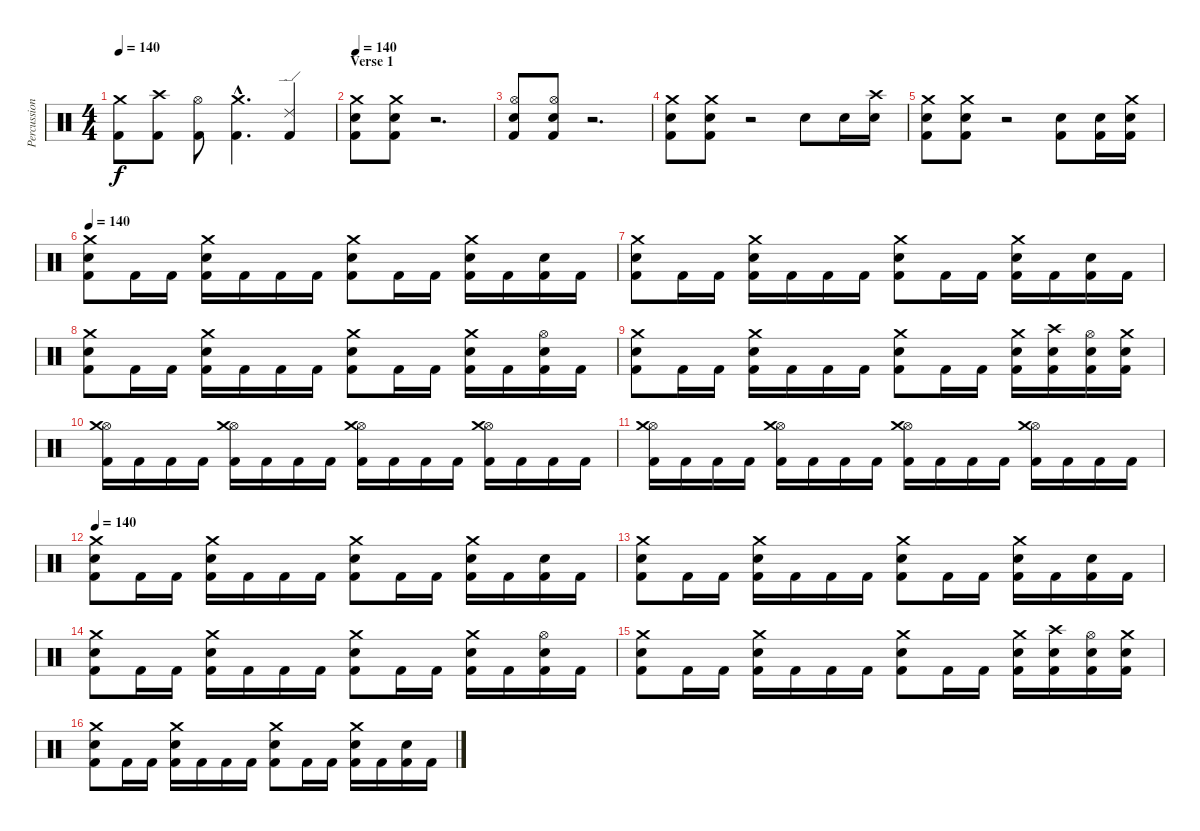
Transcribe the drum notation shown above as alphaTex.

\track ("Percussion" "Percussion") {instrument percussion}
\staff {score}
\articulation defaults
\ts (4 4)
\tempo 140
\clef neutral
\ks c
("Crash medium (hit)" "Kick (hit) 2").8{dy f} ("Crash high (hit)" "Kick (hit) 2").8 ("Hi-Hat (open)" "Kick (hit) 2").8 ("Crash medium (hit)"{hac} "Kick (hit) 2"{hac}).4{d} ("Ride (edge) 2" "Kick (hit) 2").4 |
\section ("" "Verse 1")
\tempo 140
("Crash medium (hit)" "Snare (hit) 2" "Kick (hit) 2").8 ("Crash medium (hit)" "Snare (hit) 2" "Kick (hit) 2").8 r.2{d} |
("Hi-Hat (open)" "Snare (hit) 2" "Kick (hit) 2").8 ("Hi-Hat (open)" "Snare (hit) 2" "Kick (hit) 2").8 r.2{d} |
("Crash medium (hit)" "Snare (hit) 2" "Kick (hit) 2").8 ("Crash medium (hit)" "Snare (hit) 2" "Kick (hit) 2").8 r.2 "Snare (hit) 2".8 "Snare (hit) 2".16 ("Crash high (hit)" "Snare (hit) 2").16 |
("Crash medium (hit)" "Snare (hit) 2" "Kick (hit) 2").8 ("Crash medium (hit)" "Snare (hit) 2" "Kick (hit) 2").8 r.2 ("Snare (hit) 2" "Kick (hit) 2").8 ("Snare (hit) 2" "Kick (hit) 2").16 ("Crash medium (hit)" "Snare (hit) 2" "Kick (hit) 2").16 |
\tempo 140
("Crash medium (hit)" "Snare (hit) 2" "Kick (hit) 2").8 "Kick (hit) 2".16 "Kick (hit) 2".16 ("Crash medium (hit)" "Snare (hit) 2" "Kick (hit) 2").16 "Kick (hit) 2".16 "Kick (hit) 2".16 "Kick (hit) 2".16 ("Crash medium (hit)" "Snare (hit) 2" "Kick (hit) 2").8 "Kick (hit) 2".16 "Kick (hit) 2".16 ("Crash medium (hit)" "Snare (hit) 2" "Kick (hit) 2").16 "Kick (hit) 2".16 ("Snare (hit) 2" "Kick (hit) 2").16 "Kick (hit) 2".16 |
("Crash medium (hit)" "Snare (hit) 2" "Kick (hit) 2").8 "Kick (hit) 2".16 "Kick (hit) 2".16 ("Crash medium (hit)" "Snare (hit) 2" "Kick (hit) 2").16 "Kick (hit) 2".16 "Kick (hit) 2".16 "Kick (hit) 2".16 ("Crash medium (hit)" "Snare (hit) 2" "Kick (hit) 2").8 "Kick (hit) 2".16 "Kick (hit) 2".16 ("Crash medium (hit)" "Snare (hit) 2" "Kick (hit) 2").16 "Kick (hit) 2".16 ("Snare (hit) 2" "Kick (hit) 2").16 "Kick (hit) 2".16 |
("Crash medium (hit)" "Snare (hit) 2" "Kick (hit) 2").8 "Kick (hit) 2".16 "Kick (hit) 2".16 ("Crash medium (hit)" "Snare (hit) 2" "Kick (hit) 2").16 "Kick (hit) 2".16 "Kick (hit) 2".16 "Kick (hit) 2".16 ("Crash medium (hit)" "Snare (hit) 2" "Kick (hit) 2").8 "Kick (hit) 2".16 "Kick (hit) 2".16 ("Crash medium (hit)" "Snare (hit) 2" "Kick (hit) 2").16 "Kick (hit) 2".16 ("Hi-Hat (open)" "Snare (hit) 2" "Kick (hit) 2").16 "Kick (hit) 2".16 |
("Crash medium (hit)" "Snare (hit) 2" "Kick (hit) 2").8 "Kick (hit) 2".16 "Kick (hit) 2".16 ("Crash medium (hit)" "Snare (hit) 2" "Kick (hit) 2").16 "Kick (hit) 2".16 "Kick (hit) 2".16 "Kick (hit) 2".16 ("Crash medium (hit)" "Snare (hit) 2" "Kick (hit) 2").8 "Kick (hit) 2".16 "Kick (hit) 2".16 ("Crash medium (hit)" "Snare (hit) 2" "Kick (hit) 2").16 ("Crash high (hit)" "Snare (hit) 2" "Kick (hit) 2").16 ("Hi-Hat (open)" "Snare (hit) 2" "Kick (hit) 2").16 ("Crash medium (hit)" "Snare (hit) 2" "Kick (hit) 2").16 |
("Hi-Hat (open)" "Crash medium (hit)" "Kick (hit) 2").16 "Kick (hit) 2".16 "Kick (hit) 2".16 "Kick (hit) 2".16 ("Hi-Hat (open)" "Crash medium (hit)" "Kick (hit) 2").16 "Kick (hit) 2".16 "Kick (hit) 2".16 "Kick (hit) 2".16 ("Hi-Hat (open)" "Crash medium (hit)" "Kick (hit) 2").16 "Kick (hit) 2".16 "Kick (hit) 2".16 "Kick (hit) 2".16 ("Hi-Hat (open)" "Crash medium (hit)" "Kick (hit) 2").16 "Kick (hit) 2".16 "Kick (hit) 2".16 "Kick (hit) 2".16 |
("Hi-Hat (open)" "Crash medium (hit)" "Kick (hit) 2").16 "Kick (hit) 2".16 "Kick (hit) 2".16 "Kick (hit) 2".16 ("Hi-Hat (open)" "Crash medium (hit)" "Kick (hit) 2").16 "Kick (hit) 2".16 "Kick (hit) 2".16 "Kick (hit) 2".16 ("Hi-Hat (open)" "Crash medium (hit)" "Kick (hit) 2").16 "Kick (hit) 2".16 "Kick (hit) 2".16 "Kick (hit) 2".16 ("Hi-Hat (open)" "Crash medium (hit)" "Kick (hit) 2").16 "Kick (hit) 2".16 "Kick (hit) 2".16 "Kick (hit) 2".16 |
\tempo 140
("Crash medium (hit)" "Snare (hit) 2" "Kick (hit) 2").8 "Kick (hit) 2".16 "Kick (hit) 2".16 ("Crash medium (hit)" "Snare (hit) 2" "Kick (hit) 2").16 "Kick (hit) 2".16 "Kick (hit) 2".16 "Kick (hit) 2".16 ("Crash medium (hit)" "Snare (hit) 2" "Kick (hit) 2").8 "Kick (hit) 2".16 "Kick (hit) 2".16 ("Crash medium (hit)" "Snare (hit) 2" "Kick (hit) 2").16 "Kick (hit) 2".16 ("Snare (hit) 2" "Kick (hit) 2").16 "Kick (hit) 2".16 |
("Crash medium (hit)" "Snare (hit) 2" "Kick (hit) 2").8 "Kick (hit) 2".16 "Kick (hit) 2".16 ("Crash medium (hit)" "Snare (hit) 2" "Kick (hit) 2").16 "Kick (hit) 2".16 "Kick (hit) 2".16 "Kick (hit) 2".16 ("Crash medium (hit)" "Snare (hit) 2" "Kick (hit) 2").8 "Kick (hit) 2".16 "Kick (hit) 2".16 ("Crash medium (hit)" "Snare (hit) 2" "Kick (hit) 2").16 "Kick (hit) 2".16 ("Snare (hit) 2" "Kick (hit) 2").16 "Kick (hit) 2".16 |
("Crash medium (hit)" "Snare (hit) 2" "Kick (hit) 2").8 "Kick (hit) 2".16 "Kick (hit) 2".16 ("Crash medium (hit)" "Snare (hit) 2" "Kick (hit) 2").16 "Kick (hit) 2".16 "Kick (hit) 2".16 "Kick (hit) 2".16 ("Crash medium (hit)" "Snare (hit) 2" "Kick (hit) 2").8 "Kick (hit) 2".16 "Kick (hit) 2".16 ("Crash medium (hit)" "Snare (hit) 2" "Kick (hit) 2").16 "Kick (hit) 2".16 ("Hi-Hat (open)" "Snare (hit) 2" "Kick (hit) 2").16 "Kick (hit) 2".16 |
("Crash medium (hit)" "Snare (hit) 2" "Kick (hit) 2").8 "Kick (hit) 2".16 "Kick (hit) 2".16 ("Crash medium (hit)" "Snare (hit) 2" "Kick (hit) 2").16 "Kick (hit) 2".16 "Kick (hit) 2".16 "Kick (hit) 2".16 ("Crash medium (hit)" "Snare (hit) 2" "Kick (hit) 2").8 "Kick (hit) 2".16 "Kick (hit) 2".16 ("Crash medium (hit)" "Snare (hit) 2" "Kick (hit) 2").16 ("Crash high (hit)" "Snare (hit) 2" "Kick (hit) 2").16 ("Hi-Hat (open)" "Snare (hit) 2" "Kick (hit) 2").16 ("Crash medium (hit)" "Snare (hit) 2" "Kick (hit) 2").16 |
("Crash medium (hit)" "Snare (hit) 2" "Kick (hit) 2").8 "Kick (hit) 2".16 "Kick (hit) 2".16 ("Crash medium (hit)" "Snare (hit) 2" "Kick (hit) 2").16 "Kick (hit) 2".16 "Kick (hit) 2".16 "Kick (hit) 2".16 ("Crash medium (hit)" "Snare (hit) 2" "Kick (hit) 2").8 "Kick (hit) 2".16 "Kick (hit) 2".16 ("Crash medium (hit)" "Snare (hit) 2" "Kick (hit) 2").16 "Kick (hit) 2".16 ("Snare (hit) 2" "Kick (hit) 2").16 "Kick (hit) 2".16
